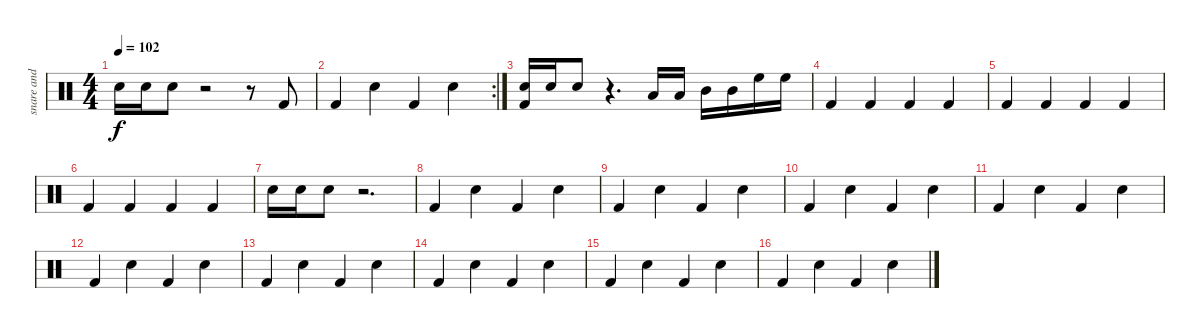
\track ("snare and B.drum" "snare and ") {instrument percussion}
\staff {score}
\articulation defaults
\ts (4 4)
\tempo 102
\clef neutral
\ks c "Electric Snare (hit)".16{dy f} "Electric Snare (hit)".16 "Electric Snare (hit)".8
r.2 r.8 "Kick (hit) 2".8 |
\rc 2 "Kick (hit) 2".4 "Electric Snare (hit)".4 "Kick (hit) 2".4 "Electric Snare (hit)".4
|
("Electric Snare (hit)" "Kick (hit) 2").16 "Electric Snare (hit)".16 "Electric Snare (hit)".8 r.4{d} "Low Tom (hit)".16 "Low Tom (hit)".16 "Mid Tom (hit)".16 "Mid Tom (hit)".16 "High Floor Tom (hit)".16 "High Floor Tom (hit)".16 |
"Kick (hit) 2".4 "Kick (hit) 2".4 "Kick (hit) 2".4 "Kick (hit) 2".4 |
"Kick (hit) 2".4 "Kick (hit) 2".4 "Kick (hit) 2".4 "Kick (hit) 2".4 |
"Kick (hit) 2".4 "Kick (hit) 2".4 "Kick (hit) 2".4 "Kick (hit) 2".4 |
"Electric Snare (hit)".16 "Electric Snare (hit)".16 "Electric Snare (hit)".8 r.2{d} |
"Kick (hit) 2".4 "Electric Snare (hit)".4 "Kick (hit) 2".4 "Electric Snare (hit)".4 |
"Kick (hit) 2".4 "Electric Snare (hit)".4 "Kick (hit) 2".4 "Electric Snare (hit)".4 |
"Kick (hit) 2".4 "Electric Snare (hit)".4 "Kick (hit) 2".4 "Electric Snare (hit)".4 |
"Kick (hit) 2".4 "Electric Snare (hit)".4 "Kick (hit) 2".4 "Electric Snare (hit)".4 |
"Kick (hit) 2".4 "Electric Snare (hit)".4 "Kick (hit) 2".4 "Electric Snare (hit)".4 |
"Kick (hit) 2".4 "Electric Snare (hit)".4 "Kick (hit) 2".4 "Electric Snare (hit)".4 |
"Kick (hit) 2".4 "Electric Snare (hit)".4 "Kick (hit) 2".4 "Electric Snare (hit)".4 |
"Kick (hit) 2".4 "Electric Snare (hit)".4 "Kick (hit) 2".4 "Electric Snare (hit)".4 |
"Kick (hit) 2".4 "Electric Snare (hit)".4 "Kick (hit) 2".4 "Electric Snare (hit)".4
